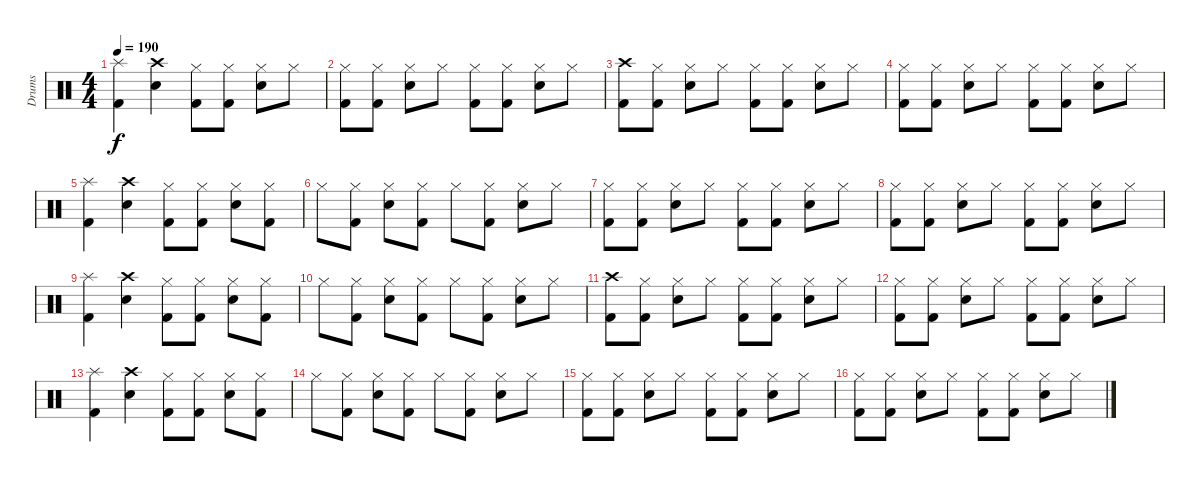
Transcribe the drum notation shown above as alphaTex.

\track ("Drums" "Drums") {instrument percussion}
\staff {score}
\articulation defaults
\ts (4 4)
\tempo 190
\clef neutral
\ks c
("Kick (hit) 2" "Splash (hit)").4{dy f} ("Snare (hit) 2" "Crash high (hit)").4 ("Kick (hit) 2" "Hi-Hat (closed)").8 ("Kick (hit) 2" "Hi-Hat (closed)").8 ("Snare (hit) 2" "Hi-Hat (closed)").8 "Hi-Hat (closed)".8 |
("Kick (hit) 2" "Hi-Hat (closed)").8 ("Kick (hit) 2" "Hi-Hat (closed)").8 ("Snare (hit) 2" "Hi-Hat (closed)").8 "Hi-Hat (closed)".8 ("Kick (hit) 2" "Hi-Hat (closed)").8 ("Kick (hit) 2" "Hi-Hat (closed)").8 ("Snare (hit) 2" "Hi-Hat (closed)").8 "Hi-Hat (closed)".8 |
("Kick (hit) 2" "Crash high (hit)").8 ("Kick (hit) 2" "Hi-Hat (closed)").8 ("Snare (hit) 2" "Hi-Hat (closed)").8 "Hi-Hat (closed)".8 ("Kick (hit) 2" "Hi-Hat (closed)").8 ("Kick (hit) 2" "Hi-Hat (closed)").8 ("Snare (hit) 2" "Hi-Hat (closed)").8 "Hi-Hat (closed)".8 |
("Kick (hit) 2" "Hi-Hat (closed)").8 ("Kick (hit) 2" "Hi-Hat (closed)").8 ("Snare (hit) 2" "Hi-Hat (closed)").8 "Hi-Hat (closed)".8 ("Kick (hit) 2" "Hi-Hat (closed)").8 ("Kick (hit) 2" "Hi-Hat (closed)").8 ("Snare (hit) 2" "Hi-Hat (closed)").8 "Hi-Hat (closed)".8 |
("Kick (hit) 2" "Splash (hit)").4 ("Snare (hit) 2" "Crash high (hit)").4 ("Kick (hit) 2" "Hi-Hat (closed)").8 ("Kick (hit) 2" "Hi-Hat (closed)").8 ("Snare (hit) 2" "Hi-Hat (closed)").8 ("Kick (hit) 2" "Hi-Hat (closed)").8 |
"Hi-Hat (closed)".8 ("Kick (hit) 2" "Hi-Hat (closed)").8 ("Snare (hit) 2" "Hi-Hat (closed)").8 ("Kick (hit) 2" "Hi-Hat (closed)").8 "Hi-Hat (closed)".8 ("Kick (hit) 2" "Hi-Hat (closed)").8 ("Snare (hit) 2" "Hi-Hat (closed)").8 "Hi-Hat (closed)".8 |
("Kick (hit) 2" "Hi-Hat (closed)").8 ("Kick (hit) 2" "Hi-Hat (closed)").8 ("Snare (hit) 2" "Hi-Hat (closed)").8 "Hi-Hat (closed)".8 ("Kick (hit) 2" "Hi-Hat (closed)").8 ("Kick (hit) 2" "Hi-Hat (closed)").8 ("Snare (hit) 2" "Hi-Hat (closed)").8 "Hi-Hat (closed)".8 |
("Kick (hit) 2" "Hi-Hat (closed)").8 ("Kick (hit) 2" "Hi-Hat (closed)").8 ("Snare (hit) 2" "Hi-Hat (closed)").8 "Hi-Hat (closed)".8 ("Kick (hit) 2" "Hi-Hat (closed)").8 ("Kick (hit) 2" "Hi-Hat (closed)").8 ("Snare (hit) 2" "Hi-Hat (closed)").8 "Hi-Hat (closed)".8 |
("Kick (hit) 2" "Splash (hit)").4 ("Snare (hit) 2" "Crash high (hit)").4 ("Kick (hit) 2" "Hi-Hat (closed)").8 ("Kick (hit) 2" "Hi-Hat (closed)").8 ("Snare (hit) 2" "Hi-Hat (closed)").8 ("Kick (hit) 2" "Hi-Hat (closed)").8 |
"Hi-Hat (closed)".8 ("Kick (hit) 2" "Hi-Hat (closed)").8 ("Snare (hit) 2" "Hi-Hat (closed)").8 ("Kick (hit) 2" "Hi-Hat (closed)").8 "Hi-Hat (closed)".8 ("Kick (hit) 2" "Hi-Hat (closed)").8 ("Snare (hit) 2" "Hi-Hat (closed)").8 "Hi-Hat (closed)".8 |
("Kick (hit) 2" "Crash high (hit)").8 ("Kick (hit) 2" "Hi-Hat (closed)").8 ("Snare (hit) 2" "Hi-Hat (closed)").8 "Hi-Hat (closed)".8 ("Kick (hit) 2" "Hi-Hat (closed)").8 ("Kick (hit) 2" "Hi-Hat (closed)").8 ("Snare (hit) 2" "Hi-Hat (closed)").8 "Hi-Hat (closed)".8 |
("Kick (hit) 2" "Hi-Hat (closed)").8 ("Kick (hit) 2" "Hi-Hat (closed)").8 ("Snare (hit) 2" "Hi-Hat (closed)").8 "Hi-Hat (closed)".8 ("Kick (hit) 2" "Hi-Hat (closed)").8 ("Kick (hit) 2" "Hi-Hat (closed)").8 ("Snare (hit) 2" "Hi-Hat (closed)").8 "Hi-Hat (closed)".8 |
("Kick (hit) 2" "Splash (hit)").4 ("Snare (hit) 2" "Crash high (hit)").4 ("Kick (hit) 2" "Hi-Hat (closed)").8 ("Kick (hit) 2" "Hi-Hat (closed)").8 ("Snare (hit) 2" "Hi-Hat (closed)").8 ("Kick (hit) 2" "Hi-Hat (closed)").8 |
"Hi-Hat (closed)".8 ("Kick (hit) 2" "Hi-Hat (closed)").8 ("Snare (hit) 2" "Hi-Hat (closed)").8 ("Kick (hit) 2" "Hi-Hat (closed)").8 "Hi-Hat (closed)".8 ("Kick (hit) 2" "Hi-Hat (closed)").8 ("Snare (hit) 2" "Hi-Hat (closed)").8 "Hi-Hat (closed)".8 |
("Kick (hit) 2" "Hi-Hat (closed)").8 ("Kick (hit) 2" "Hi-Hat (closed)").8 ("Snare (hit) 2" "Hi-Hat (closed)").8 "Hi-Hat (closed)".8 ("Kick (hit) 2" "Hi-Hat (closed)").8 ("Kick (hit) 2" "Hi-Hat (closed)").8 ("Snare (hit) 2" "Hi-Hat (closed)").8 "Hi-Hat (closed)".8 |
("Kick (hit) 2" "Hi-Hat (closed)").8 ("Kick (hit) 2" "Hi-Hat (closed)").8 ("Snare (hit) 2" "Hi-Hat (closed)").8 "Hi-Hat (closed)".8 ("Kick (hit) 2" "Hi-Hat (closed)").8 ("Kick (hit) 2" "Hi-Hat (closed)").8 ("Snare (hit) 2" "Hi-Hat (closed)").8 "Hi-Hat (closed)".8
